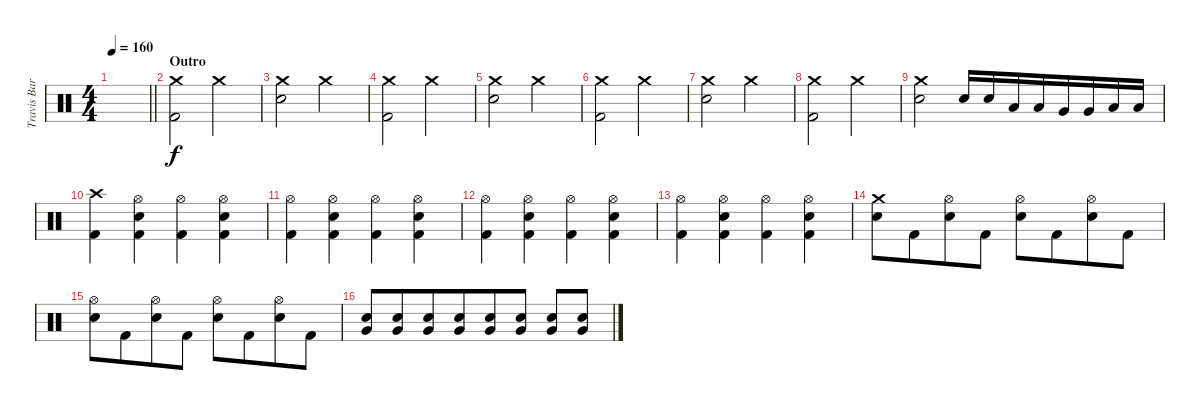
\track ("Travis Barker - Drums" "Travis Bar") {instrument percussion}
\staff {score}
\articulation defaults
\ts (4 4)
\tempo 160
\clef neutral
\barLineRight lightlight
\ks c
|
\section ("" "Outro")
("Crash medium (hit)" "Kick (hit) 2").2{beam merge} "Crash medium (hit)".2 |
("Crash medium (hit)" "Electric Snare (hit)").2 "Crash medium (hit)".2 |
("Crash medium (hit)" "Kick (hit) 2").2{beam merge} "Crash medium (hit)".2 |
("Crash medium (hit)" "Electric Snare (hit)").2 "Crash medium (hit)".2 |
("Crash medium (hit)" "Kick (hit) 2").2{beam merge} "Crash medium (hit)".2 |
("Crash medium (hit)" "Electric Snare (hit)").2 "Crash medium (hit)".2 |
("Crash medium (hit)" "Kick (hit) 2").2{beam merge} "Crash medium (hit)".2 |
("Crash medium (hit)" "Electric Snare (hit)").2 "Electric Snare (hit)".16{beam merge} "Electric Snare (hit)".16 "Low Tom (hit)".16 "Low Tom (hit)".16{beam merge} "Very Low Tom (hit)".16{beam merge} "Very Low Tom (hit)".16{beam merge} "Low Floor Tom (hit)".16 "Low Floor Tom (hit)".16 |
("Crash high (hit)" "Kick (hit) 2").4 ("Hi-Hat (open)" "Electric Snare (hit)" "Kick (hit) 2").4 ("Hi-Hat (open)" "Kick (hit) 2").4 ("Hi-Hat (open)" "Electric Snare (hit)" "Kick (hit) 2").4 |
("Hi-Hat (open)" "Kick (hit) 2").4 ("Hi-Hat (open)" "Electric Snare (hit)" "Kick (hit) 2").4 ("Hi-Hat (open)" "Kick (hit) 2").4 ("Hi-Hat (open)" "Electric Snare (hit)" "Kick (hit) 2").4 |
("Hi-Hat (open)" "Kick (hit) 2").4 ("Hi-Hat (open)" "Electric Snare (hit)" "Kick (hit) 2").4 ("Hi-Hat (open)" "Kick (hit) 2").4 ("Hi-Hat (open)" "Electric Snare (hit)" "Kick (hit) 2").4 |
("Hi-Hat (open)" "Kick (hit) 2").4 ("Hi-Hat (open)" "Electric Snare (hit)" "Kick (hit) 2").4 ("Hi-Hat (open)" "Kick (hit) 2").4 ("Hi-Hat (open)" "Electric Snare (hit)" "Kick (hit) 2").4 |
("Crash medium (hit)" "Electric Snare (hit)").8{beam merge} "Kick (hit) 2".8{beam merge} ("Hi-Hat (open)" "Electric Snare (hit)").8 "Kick (hit) 2".8 ("Hi-Hat (open)" "Electric Snare (hit)").8{beam merge} "Kick (hit) 2".8{beam merge} ("Hi-Hat (open)" "Electric Snare (hit)").8 "Kick (hit) 2".8 |
("Hi-Hat (open)" "Electric Snare (hit)").8{beam merge} "Kick (hit) 2".8{beam merge} ("Hi-Hat (open)" "Electric Snare (hit)").8 "Kick (hit) 2".8 ("Hi-Hat (open)" "Electric Snare (hit)").8{beam merge} "Kick (hit) 2".8{beam merge} ("Hi-Hat (open)" "Electric Snare (hit)").8 "Kick (hit) 2".8 |
("Electric Snare (hit)" "Very Low Tom (hit)").8 ("Electric Snare (hit)" "Very Low Tom (hit)").8{beam merge} ("Electric Snare (hit)" "Very Low Tom (hit)").8{beam merge} ("Electric Snare (hit)" "Very Low Tom (hit)").8{beam merge} ("Electric Snare (hit)" "Very Low Tom (hit)").8 ("Electric Snare (hit)" "Very Low Tom (hit)").8 ("Electric Snare (hit)" "Very Low Tom (hit)").8{beam merge} ("Electric Snare (hit)" "Very Low Tom (hit)").8
